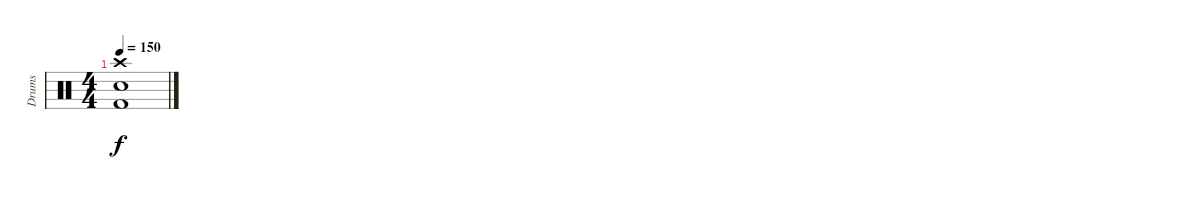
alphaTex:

\track ("Drums" "Drums") {instrument percussion}
\staff {score}
\articulation defaults
\ts (4 4)
\tempo 150
\clef neutral
\ks c
("Crash high (hit)" "Electric Snare (hit)" "Kick (hit) 2").1{dy f}
